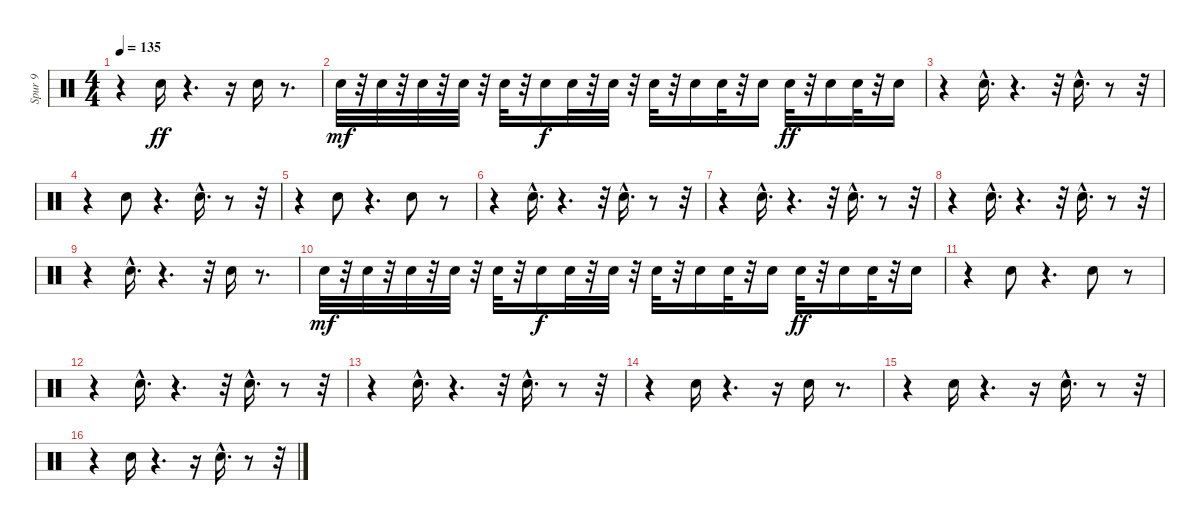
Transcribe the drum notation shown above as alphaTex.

\track ("Spur 9" "Spur 9") {instrument percussion}
\staff {score}
\articulation defaults
\ts (4 4)
\tempo 135
\clef neutral
\ks c
r.4{dy ff} "Electric Snare (hit)".16 r.4{d} r.16 "Electric Snare (hit)".16 r.8{d} |
"Electric Snare (hit)".32{dy mf} r.32 "Electric Snare (hit)".32 r.32 "Electric Snare (hit)".32 r.32 "Electric Snare (hit)".32 r.32 "Electric Snare (hit)".32 r.32 "Electric Snare (hit)".16{dy f} "Electric Snare (hit)".32 r.32 "Electric Snare (hit)".32 r.32 "Electric Snare (hit)".32 r.32 "Electric Snare (hit)".16 "Electric Snare (hit)".32 r.32 "Electric Snare (hit)".16 "Electric Snare (hit)".32{dy ff} r.32 "Electric Snare (hit)".16 "Electric Snare (hit)".32 r.32 "Electric Snare (hit)".16 |
r.4 "Electric Snare (hit)"{hac}.16{d} r.4{d} r.32 "Electric Snare (hit)"{hac}.16{d} r.8 r.32 |
r.4 "Electric Snare (hit)".8 r.4{d} "Electric Snare (hit)"{hac}.16{d} r.8 r.32 |
r.4 "Electric Snare (hit)".8 r.4{d} "Electric Snare (hit)".8 r.8 |
r.4 "Electric Snare (hit)"{hac}.16{d} r.4{d} r.32 "Electric Snare (hit)"{hac}.16{d} r.8 r.32 |
r.4 "Electric Snare (hit)"{hac}.16{d} r.4{d} r.32 "Electric Snare (hit)"{hac}.16{d} r.8 r.32 |
r.4 "Electric Snare (hit)"{hac}.16{d} r.4{d} r.32 "Electric Snare (hit)"{hac}.16{d} r.8 r.32 |
r.4 "Electric Snare (hit)"{hac}.16{d} r.4{d} r.32 "Electric Snare (hit)".16 r.8{d} |
"Electric Snare (hit)".32{dy mf} r.32 "Electric Snare (hit)".32 r.32 "Electric Snare (hit)".32 r.32 "Electric Snare (hit)".32 r.32 "Electric Snare (hit)".32 r.32 "Electric Snare (hit)".16{dy f} "Electric Snare (hit)".32 r.32 "Electric Snare (hit)".32 r.32 "Electric Snare (hit)".32 r.32 "Electric Snare (hit)".16 "Electric Snare (hit)".32 r.32 "Electric Snare (hit)".16 "Electric Snare (hit)".32{dy ff} r.32 "Electric Snare (hit)".16 "Electric Snare (hit)".32 r.32 "Electric Snare (hit)".16 |
r.4 "Electric Snare (hit)".8 r.4{d} "Electric Snare (hit)".8 r.8 |
r.4 "Electric Snare (hit)"{hac}.16{d} r.4{d} r.32 "Electric Snare (hit)"{hac}.16{d} r.8 r.32 |
r.4 "Electric Snare (hit)"{hac}.16{d} r.4{d} r.32 "Electric Snare (hit)"{hac}.16{d} r.8 r.32 |
r.4 "Electric Snare (hit)".16 r.4{d} r.16 "Electric Snare (hit)".16 r.8{d} |
r.4 "Electric Snare (hit)".16 r.4{d} r.16 "Electric Snare (hit)"{hac}.16{d} r.8 r.32 |
r.4 "Electric Snare (hit)".16 r.4{d} r.16 "Electric Snare (hit)"{hac}.16{d} r.8 r.32
